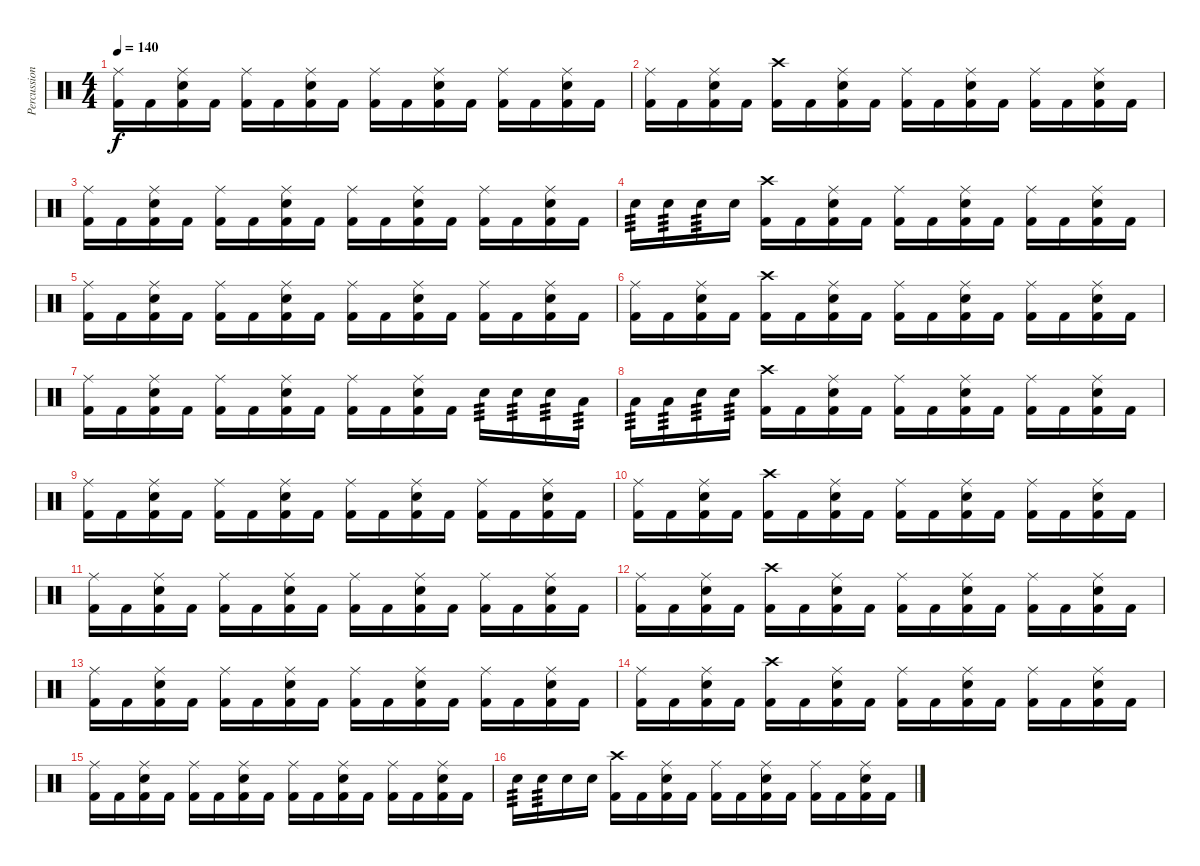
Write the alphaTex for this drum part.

\track ("Percussion" "Percussion") {instrument percussion}
\staff {score}
\articulation defaults
\ts (4 4)
\tempo 140
\clef neutral
\ks c
("Kick (hit) 2" "Ride (middle)").16{dy f} "Kick (hit) 2".16 ("Kick (hit) 2" "Electric Snare (hit)" "Ride (middle)").16 "Kick (hit) 2".16 ("Kick (hit) 2" "Ride (middle)").16 "Kick (hit) 2".16 ("Kick (hit) 2" "Electric Snare (hit)" "Ride (middle)").16 "Kick (hit) 2".16 ("Kick (hit) 2" "Ride (middle)").16 "Kick (hit) 2".16 ("Kick (hit) 2" "Electric Snare (hit)" "Ride (middle)").16 "Kick (hit) 2".16 ("Kick (hit) 2" "Ride (middle)").16 "Kick (hit) 2".16 ("Kick (hit) 2" "Electric Snare (hit)" "Ride (middle)").16 "Kick (hit) 2".16 |
("Kick (hit) 2" "Ride (middle)").16 "Kick (hit) 2".16 ("Kick (hit) 2" "Electric Snare (hit)" "Ride (middle)").16 "Kick (hit) 2".16 ("Kick (hit) 2" "Crash high (hit)").16 "Kick (hit) 2".16 ("Kick (hit) 2" "Electric Snare (hit)" "Ride (middle)").16 "Kick (hit) 2".16 ("Kick (hit) 2" "Ride (middle)").16 "Kick (hit) 2".16 ("Kick (hit) 2" "Electric Snare (hit)" "Ride (middle)").16 "Kick (hit) 2".16 ("Kick (hit) 2" "Ride (middle)").16 "Kick (hit) 2".16 ("Kick (hit) 2" "Electric Snare (hit)" "Ride (middle)").16 "Kick (hit) 2".16 |
("Kick (hit) 2" "Ride (middle)").16 "Kick (hit) 2".16 ("Kick (hit) 2" "Electric Snare (hit)" "Ride (middle)").16 "Kick (hit) 2".16 ("Kick (hit) 2" "Ride (middle)").16 "Kick (hit) 2".16 ("Kick (hit) 2" "Electric Snare (hit)" "Ride (middle)").16 "Kick (hit) 2".16 ("Kick (hit) 2" "Ride (middle)").16 "Kick (hit) 2".16 ("Kick (hit) 2" "Electric Snare (hit)" "Ride (middle)").16 "Kick (hit) 2".16 ("Kick (hit) 2" "Ride (middle)").16 "Kick (hit) 2".16 ("Kick (hit) 2" "Electric Snare (hit)" "Ride (middle)").16 "Kick (hit) 2".16 |
"Electric Snare (hit)".16{tp 3} "Electric Snare (hit)".16{tp 3} "Electric Snare (hit)".16{tp 3} "Electric Snare (hit)".16 ("Kick (hit) 2" "Crash high (hit)").16 "Kick (hit) 2".16 ("Kick (hit) 2" "Electric Snare (hit)" "Ride (middle)").16 "Kick (hit) 2".16 ("Kick (hit) 2" "Ride (middle)").16 "Kick (hit) 2".16 ("Kick (hit) 2" "Electric Snare (hit)" "Ride (middle)").16 "Kick (hit) 2".16 ("Kick (hit) 2" "Ride (middle)").16 "Kick (hit) 2".16 ("Kick (hit) 2" "Electric Snare (hit)" "Ride (middle)").16 "Kick (hit) 2".16 |
("Kick (hit) 2" "Ride (middle)").16 "Kick (hit) 2".16 ("Kick (hit) 2" "Electric Snare (hit)" "Ride (middle)").16 "Kick (hit) 2".16 ("Kick (hit) 2" "Ride (middle)").16 "Kick (hit) 2".16 ("Kick (hit) 2" "Electric Snare (hit)" "Ride (middle)").16 "Kick (hit) 2".16 ("Kick (hit) 2" "Ride (middle)").16 "Kick (hit) 2".16 ("Kick (hit) 2" "Electric Snare (hit)" "Ride (middle)").16 "Kick (hit) 2".16 ("Kick (hit) 2" "Ride (middle)").16 "Kick (hit) 2".16 ("Kick (hit) 2" "Electric Snare (hit)" "Ride (middle)").16 "Kick (hit) 2".16 |
("Kick (hit) 2" "Ride (middle)").16 "Kick (hit) 2".16 ("Kick (hit) 2" "Electric Snare (hit)" "Ride (middle)").16 "Kick (hit) 2".16 ("Kick (hit) 2" "Crash high (hit)").16 "Kick (hit) 2".16 ("Kick (hit) 2" "Electric Snare (hit)" "Ride (middle)").16 "Kick (hit) 2".16 ("Kick (hit) 2" "Ride (middle)").16 "Kick (hit) 2".16 ("Kick (hit) 2" "Electric Snare (hit)" "Ride (middle)").16 "Kick (hit) 2".16 ("Kick (hit) 2" "Ride (middle)").16 "Kick (hit) 2".16 ("Kick (hit) 2" "Electric Snare (hit)" "Ride (middle)").16 "Kick (hit) 2".16 |
("Kick (hit) 2" "Ride (middle)").16 "Kick (hit) 2".16 ("Kick (hit) 2" "Electric Snare (hit)" "Ride (middle)").16 "Kick (hit) 2".16 ("Kick (hit) 2" "Ride (middle)").16 "Kick (hit) 2".16 ("Kick (hit) 2" "Electric Snare (hit)" "Ride (middle)").16 "Kick (hit) 2".16 ("Kick (hit) 2" "Ride (middle)").16 "Kick (hit) 2".16 ("Kick (hit) 2" "Electric Snare (hit)" "Ride (middle)").16 "Kick (hit) 2".16 "Electric Snare (hit)".16{tp 3} "Electric Snare (hit)".16{tp 3} "Electric Snare (hit)".16{tp 3} "Low Tom (hit)".16{tp 3} |
"Low Tom (hit)".16{tp 3} "Low Tom (hit)".16{tp 3} "Electric Snare (hit)".16{tp 3} "Electric Snare (hit)".16{tp 3} ("Kick (hit) 2" "Crash high (hit)").16 "Kick (hit) 2".16 ("Kick (hit) 2" "Electric Snare (hit)" "Ride (middle)").16 "Kick (hit) 2".16 ("Kick (hit) 2" "Ride (middle)").16 "Kick (hit) 2".16 ("Kick (hit) 2" "Electric Snare (hit)" "Ride (middle)").16 "Kick (hit) 2".16 ("Kick (hit) 2" "Ride (middle)").16 "Kick (hit) 2".16 ("Kick (hit) 2" "Electric Snare (hit)" "Ride (middle)").16 "Kick (hit) 2".16 |
("Kick (hit) 2" "Ride (middle)").16 "Kick (hit) 2".16 ("Kick (hit) 2" "Electric Snare (hit)" "Ride (middle)").16 "Kick (hit) 2".16 ("Kick (hit) 2" "Ride (middle)").16 "Kick (hit) 2".16 ("Kick (hit) 2" "Electric Snare (hit)" "Ride (middle)").16 "Kick (hit) 2".16 ("Kick (hit) 2" "Ride (middle)").16 "Kick (hit) 2".16 ("Kick (hit) 2" "Electric Snare (hit)" "Ride (middle)").16 "Kick (hit) 2".16 ("Kick (hit) 2" "Ride (middle)").16 "Kick (hit) 2".16 ("Kick (hit) 2" "Electric Snare (hit)" "Ride (middle)").16 "Kick (hit) 2".16 |
("Kick (hit) 2" "Ride (middle)").16 "Kick (hit) 2".16 ("Kick (hit) 2" "Electric Snare (hit)" "Ride (middle)").16 "Kick (hit) 2".16 ("Kick (hit) 2" "Crash high (hit)").16 "Kick (hit) 2".16 ("Kick (hit) 2" "Electric Snare (hit)" "Ride (middle)").16 "Kick (hit) 2".16 ("Kick (hit) 2" "Ride (middle)").16 "Kick (hit) 2".16 ("Kick (hit) 2" "Electric Snare (hit)" "Ride (middle)").16 "Kick (hit) 2".16 ("Kick (hit) 2" "Ride (middle)").16 "Kick (hit) 2".16 ("Kick (hit) 2" "Electric Snare (hit)" "Ride (middle)").16 "Kick (hit) 2".16 |
("Kick (hit) 2" "Ride (middle)").16 "Kick (hit) 2".16 ("Kick (hit) 2" "Electric Snare (hit)" "Ride (middle)").16 "Kick (hit) 2".16 ("Kick (hit) 2" "Ride (middle)").16 "Kick (hit) 2".16 ("Kick (hit) 2" "Electric Snare (hit)" "Ride (middle)").16 "Kick (hit) 2".16 ("Kick (hit) 2" "Ride (middle)").16 "Kick (hit) 2".16 ("Kick (hit) 2" "Electric Snare (hit)" "Ride (middle)").16 "Kick (hit) 2".16 ("Kick (hit) 2" "Ride (middle)").16 "Kick (hit) 2".16 ("Kick (hit) 2" "Electric Snare (hit)" "Ride (middle)").16 "Kick (hit) 2".16 |
("Kick (hit) 2" "Ride (middle)").16 "Kick (hit) 2".16 ("Kick (hit) 2" "Electric Snare (hit)" "Ride (middle)").16 "Kick (hit) 2".16 ("Kick (hit) 2" "Crash high (hit)").16 "Kick (hit) 2".16 ("Kick (hit) 2" "Electric Snare (hit)" "Ride (middle)").16 "Kick (hit) 2".16 ("Kick (hit) 2" "Ride (middle)").16 "Kick (hit) 2".16 ("Kick (hit) 2" "Electric Snare (hit)" "Ride (middle)").16 "Kick (hit) 2".16 ("Kick (hit) 2" "Ride (middle)").16 "Kick (hit) 2".16 ("Kick (hit) 2" "Electric Snare (hit)" "Ride (middle)").16 "Kick (hit) 2".16 |
("Kick (hit) 2" "Ride (middle)").16 "Kick (hit) 2".16 ("Kick (hit) 2" "Electric Snare (hit)" "Ride (middle)").16 "Kick (hit) 2".16 ("Kick (hit) 2" "Ride (middle)").16 "Kick (hit) 2".16 ("Kick (hit) 2" "Electric Snare (hit)" "Ride (middle)").16 "Kick (hit) 2".16 ("Kick (hit) 2" "Ride (middle)").16 "Kick (hit) 2".16 ("Kick (hit) 2" "Electric Snare (hit)" "Ride (middle)").16 "Kick (hit) 2".16 ("Kick (hit) 2" "Ride (middle)").16 "Kick (hit) 2".16 ("Kick (hit) 2" "Electric Snare (hit)" "Ride (middle)").16 "Kick (hit) 2".16 |
("Kick (hit) 2" "Ride (middle)").16 "Kick (hit) 2".16 ("Kick (hit) 2" "Electric Snare (hit)" "Ride (middle)").16 "Kick (hit) 2".16 ("Kick (hit) 2" "Crash high (hit)").16 "Kick (hit) 2".16 ("Kick (hit) 2" "Electric Snare (hit)" "Ride (middle)").16 "Kick (hit) 2".16 ("Kick (hit) 2" "Ride (middle)").16 "Kick (hit) 2".16 ("Kick (hit) 2" "Electric Snare (hit)" "Ride (middle)").16 "Kick (hit) 2".16 ("Kick (hit) 2" "Ride (middle)").16 "Kick (hit) 2".16 ("Kick (hit) 2" "Electric Snare (hit)" "Ride (middle)").16 "Kick (hit) 2".16 |
("Kick (hit) 2" "Ride (middle)").16 "Kick (hit) 2".16 ("Kick (hit) 2" "Electric Snare (hit)" "Ride (middle)").16 "Kick (hit) 2".16 ("Kick (hit) 2" "Ride (middle)").16 "Kick (hit) 2".16 ("Kick (hit) 2" "Electric Snare (hit)" "Ride (middle)").16 "Kick (hit) 2".16 ("Kick (hit) 2" "Ride (middle)").16 "Kick (hit) 2".16 ("Kick (hit) 2" "Electric Snare (hit)" "Ride (middle)").16 "Kick (hit) 2".16 ("Kick (hit) 2" "Ride (middle)").16 "Kick (hit) 2".16 ("Kick (hit) 2" "Electric Snare (hit)" "Ride (middle)").16 "Kick (hit) 2".16 |
"Electric Snare (hit)".16{tp 3} "Electric Snare (hit)".16{tp 3} "Electric Snare (hit)".16 "Electric Snare (hit)".16 ("Kick (hit) 2" "Crash high (hit)").16 "Kick (hit) 2".16 ("Kick (hit) 2" "Electric Snare (hit)" "Ride (middle)").16 "Kick (hit) 2".16 ("Kick (hit) 2" "Ride (middle)").16 "Kick (hit) 2".16 ("Kick (hit) 2" "Electric Snare (hit)" "Ride (middle)").16 "Kick (hit) 2".16 ("Kick (hit) 2" "Ride (middle)").16 "Kick (hit) 2".16 ("Kick (hit) 2" "Electric Snare (hit)" "Ride (middle)").16 "Kick (hit) 2".16
